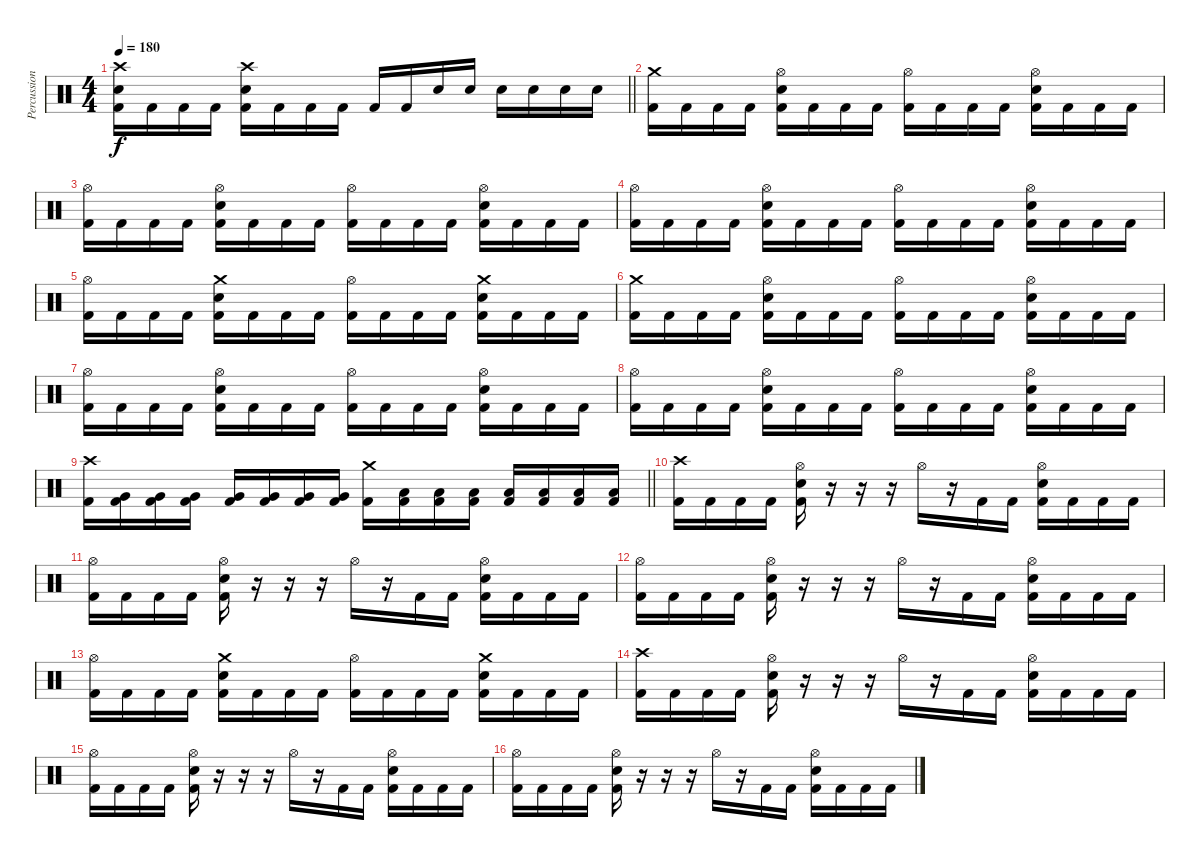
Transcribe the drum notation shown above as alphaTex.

\track ("Percussion" "Percussion") {instrument percussion}
\staff {score}
\articulation defaults
\ts (4 4)
\tempo 180
\clef neutral
\barLineRight lightlight
\ks c
("Crash high (hit)" "Snare (hit) 2" "Kick (hit) 2").16{dy f} "Kick (hit) 2".16 "Kick (hit) 2".16 "Kick (hit) 2".16 ("Crash high (hit)" "Snare (hit) 2" "Kick (hit) 2").16 "Kick (hit) 2".16 "Kick (hit) 2".16 "Kick (hit) 2".16 "Kick (hit) 2".16 "Kick (hit) 2".16 "Snare (hit) 2".16 "Snare (hit) 2".16 "Snare (hit) 2".16 "Snare (hit) 2".16 "Snare (hit) 2".16 "Snare (hit) 2".16 |
("Crash medium (hit)" "Kick (hit) 2").16 "Kick (hit) 2".16 "Kick (hit) 2".16 "Kick (hit) 2".16 ("Hi-Hat (open)" "Snare (hit) 2" "Kick (hit) 2").16 "Kick (hit) 2".16 "Kick (hit) 2".16 "Kick (hit) 2".16 ("Hi-Hat (open)" "Kick (hit) 2").16 "Kick (hit) 2".16 "Kick (hit) 2".16 "Kick (hit) 2".16 ("Hi-Hat (open)" "Snare (hit) 2" "Kick (hit) 2").16 "Kick (hit) 2".16 "Kick (hit) 2".16 "Kick (hit) 2".16 |
("Hi-Hat (open)" "Kick (hit) 2").16 "Kick (hit) 2".16 "Kick (hit) 2".16 "Kick (hit) 2".16 ("Hi-Hat (open)" "Snare (hit) 2" "Kick (hit) 2").16 "Kick (hit) 2".16 "Kick (hit) 2".16 "Kick (hit) 2".16 ("Hi-Hat (open)" "Kick (hit) 2").16 "Kick (hit) 2".16 "Kick (hit) 2".16 "Kick (hit) 2".16 ("Hi-Hat (open)" "Snare (hit) 2" "Kick (hit) 2").16 "Kick (hit) 2".16 "Kick (hit) 2".16 "Kick (hit) 2".16 |
("Hi-Hat (open)" "Kick (hit) 2").16 "Kick (hit) 2".16 "Kick (hit) 2".16 "Kick (hit) 2".16 ("Hi-Hat (open)" "Snare (hit) 2" "Kick (hit) 2").16 "Kick (hit) 2".16 "Kick (hit) 2".16 "Kick (hit) 2".16 ("Hi-Hat (open)" "Kick (hit) 2").16 "Kick (hit) 2".16 "Kick (hit) 2".16 "Kick (hit) 2".16 ("Hi-Hat (open)" "Snare (hit) 2" "Kick (hit) 2").16 "Kick (hit) 2".16 "Kick (hit) 2".16 "Kick (hit) 2".16 |
("Hi-Hat (open)" "Kick (hit) 2").16 "Kick (hit) 2".16 "Kick (hit) 2".16 "Kick (hit) 2".16 ("Crash medium (hit)" "Snare (hit) 2" "Kick (hit) 2").16 "Kick (hit) 2".16 "Kick (hit) 2".16 "Kick (hit) 2".16 ("Hi-Hat (open)" "Kick (hit) 2").16 "Kick (hit) 2".16 "Kick (hit) 2".16 "Kick (hit) 2".16 ("Crash medium (hit)" "Snare (hit) 2" "Kick (hit) 2").16 "Kick (hit) 2".16 "Kick (hit) 2".16 "Kick (hit) 2".16 |
("Crash medium (hit)" "Kick (hit) 2").16 "Kick (hit) 2".16 "Kick (hit) 2".16 "Kick (hit) 2".16 ("Hi-Hat (open)" "Snare (hit) 2" "Kick (hit) 2").16 "Kick (hit) 2".16 "Kick (hit) 2".16 "Kick (hit) 2".16 ("Hi-Hat (open)" "Kick (hit) 2").16 "Kick (hit) 2".16 "Kick (hit) 2".16 "Kick (hit) 2".16 ("Hi-Hat (open)" "Snare (hit) 2" "Kick (hit) 2").16 "Kick (hit) 2".16 "Kick (hit) 2".16 "Kick (hit) 2".16 |
("Hi-Hat (open)" "Kick (hit) 2").16 "Kick (hit) 2".16 "Kick (hit) 2".16 "Kick (hit) 2".16 ("Hi-Hat (open)" "Snare (hit) 2" "Kick (hit) 2").16 "Kick (hit) 2".16 "Kick (hit) 2".16 "Kick (hit) 2".16 ("Hi-Hat (open)" "Kick (hit) 2").16 "Kick (hit) 2".16 "Kick (hit) 2".16 "Kick (hit) 2".16 ("Hi-Hat (open)" "Snare (hit) 2" "Kick (hit) 2").16 "Kick (hit) 2".16 "Kick (hit) 2".16 "Kick (hit) 2".16 |
("Hi-Hat (open)" "Kick (hit) 2").16 "Kick (hit) 2".16 "Kick (hit) 2".16 "Kick (hit) 2".16 ("Hi-Hat (open)" "Snare (hit) 2" "Kick (hit) 2").16 "Kick (hit) 2".16 "Kick (hit) 2".16 "Kick (hit) 2".16 ("Hi-Hat (open)" "Kick (hit) 2").16 "Kick (hit) 2".16 "Kick (hit) 2".16 "Kick (hit) 2".16 ("Hi-Hat (open)" "Snare (hit) 2" "Kick (hit) 2").16 "Kick (hit) 2".16 "Kick (hit) 2".16 "Kick (hit) 2".16 |
\barLineRight lightlight
("Crash high (hit)" "Kick (hit) 2").16 ("Very Low Tom (hit)" "Kick (hit) 2").16 ("Very Low Tom (hit)" "Kick (hit) 2").16 ("Very Low Tom (hit)" "Kick (hit) 2").16 ("Very Low Tom (hit)" "Kick (hit) 2").16 ("Very Low Tom (hit)" "Kick (hit) 2").16 ("Very Low Tom (hit)" "Kick (hit) 2").16 ("Very Low Tom (hit)" "Kick (hit) 2").16 ("Crash medium (hit)" "Kick (hit) 2").16 ("Low Tom (hit)" "Kick (hit) 2").16 ("Low Tom (hit)" "Kick (hit) 2").16 ("Low Tom (hit)" "Kick (hit) 2").16 ("Low Tom (hit)" "Kick (hit) 2").16 ("Low Tom (hit)" "Kick (hit) 2").16 ("Low Tom (hit)" "Kick (hit) 2").16 ("Low Tom (hit)" "Kick (hit) 2").16 |
("Crash high (hit)" "Kick (hit) 2").16 "Kick (hit) 2".16 "Kick (hit) 2".16 "Kick (hit) 2".16 ("Hi-Hat (open)" "Snare (hit) 2" "Kick (hit) 2").16 r.16 r.16 r.16 "Hi-Hat (open)".16 r.16 "Kick (hit) 2".16 "Kick (hit) 2".16 ("Hi-Hat (open)" "Snare (hit) 2" "Kick (hit) 2").16 "Kick (hit) 2".16 "Kick (hit) 2".16 "Kick (hit) 2".16 |
("Hi-Hat (open)" "Kick (hit) 2").16 "Kick (hit) 2".16 "Kick (hit) 2".16 "Kick (hit) 2".16 ("Hi-Hat (open)" "Snare (hit) 2" "Kick (hit) 2").16 r.16 r.16 r.16 "Hi-Hat (open)".16 r.16 "Kick (hit) 2".16 "Kick (hit) 2".16 ("Hi-Hat (open)" "Snare (hit) 2" "Kick (hit) 2").16 "Kick (hit) 2".16 "Kick (hit) 2".16 "Kick (hit) 2".16 |
("Hi-Hat (open)" "Kick (hit) 2").16 "Kick (hit) 2".16 "Kick (hit) 2".16 "Kick (hit) 2".16 ("Hi-Hat (open)" "Snare (hit) 2" "Kick (hit) 2").16 r.16 r.16 r.16 "Hi-Hat (open)".16 r.16 "Kick (hit) 2".16 "Kick (hit) 2".16 ("Hi-Hat (open)" "Snare (hit) 2" "Kick (hit) 2").16 "Kick (hit) 2".16 "Kick (hit) 2".16 "Kick (hit) 2".16 |
("Hi-Hat (open)" "Kick (hit) 2").16 "Kick (hit) 2".16 "Kick (hit) 2".16 "Kick (hit) 2".16 ("Crash medium (hit)" "Snare (hit) 2" "Kick (hit) 2").16 "Kick (hit) 2".16 "Kick (hit) 2".16 "Kick (hit) 2".16 ("Hi-Hat (open)" "Kick (hit) 2").16 "Kick (hit) 2".16 "Kick (hit) 2".16 "Kick (hit) 2".16 ("Crash medium (hit)" "Snare (hit) 2" "Kick (hit) 2").16 "Kick (hit) 2".16 "Kick (hit) 2".16 "Kick (hit) 2".16 |
("Crash high (hit)" "Kick (hit) 2").16 "Kick (hit) 2".16 "Kick (hit) 2".16 "Kick (hit) 2".16 ("Hi-Hat (open)" "Snare (hit) 2" "Kick (hit) 2").16 r.16 r.16 r.16 "Hi-Hat (open)".16 r.16 "Kick (hit) 2".16 "Kick (hit) 2".16 ("Hi-Hat (open)" "Snare (hit) 2" "Kick (hit) 2").16 "Kick (hit) 2".16 "Kick (hit) 2".16 "Kick (hit) 2".16 |
("Hi-Hat (open)" "Kick (hit) 2").16 "Kick (hit) 2".16 "Kick (hit) 2".16 "Kick (hit) 2".16 ("Hi-Hat (open)" "Snare (hit) 2" "Kick (hit) 2").16 r.16 r.16 r.16 "Hi-Hat (open)".16 r.16 "Kick (hit) 2".16 "Kick (hit) 2".16 ("Hi-Hat (open)" "Snare (hit) 2" "Kick (hit) 2").16 "Kick (hit) 2".16 "Kick (hit) 2".16 "Kick (hit) 2".16 |
("Hi-Hat (open)" "Kick (hit) 2").16 "Kick (hit) 2".16 "Kick (hit) 2".16 "Kick (hit) 2".16 ("Hi-Hat (open)" "Snare (hit) 2" "Kick (hit) 2").16 r.16 r.16 r.16 "Hi-Hat (open)".16 r.16 "Kick (hit) 2".16 "Kick (hit) 2".16 ("Hi-Hat (open)" "Snare (hit) 2" "Kick (hit) 2").16 "Kick (hit) 2".16 "Kick (hit) 2".16 "Kick (hit) 2".16
